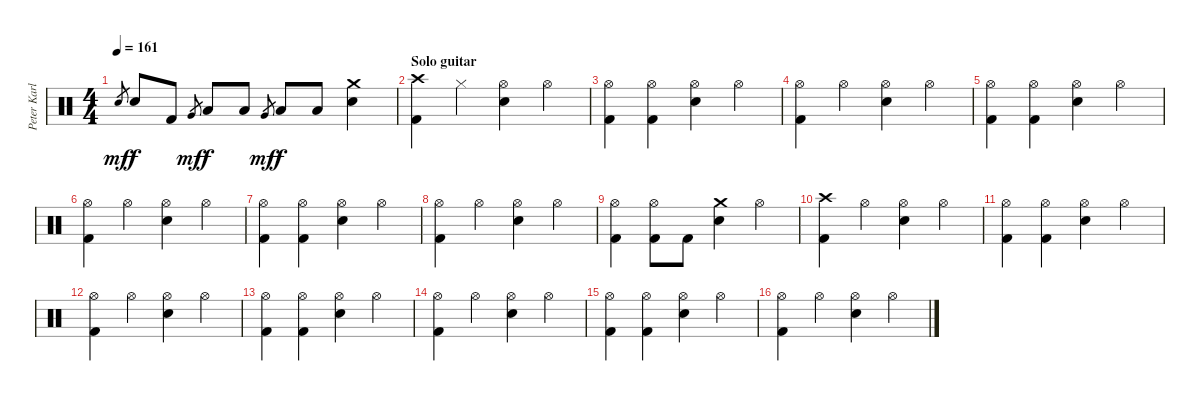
\track ("Peter Karlsson" "Peter Karl") {instrument percussion}
\staff {score}
\articulation defaults
\ts (4 4)
\tempo 161
\clef neutral
\ks c "Snare (hit) 2".8{gr dy mf} "Snare (hit) 2".8{dy f} "Kick (hit) 2".8 "Very Low Tom (hit)".8{gr dy mf} "Low Tom (hit)".8{dy f} "Low Tom (hit)".8 "Very Low Tom (hit)".8{gr dy mf} "Low Tom (hit)".8{dy f} "Low Tom (hit)".8
("Crash medium (hit)" "Snare (hit) 2").4 |
\section ("" "Solo guitar")
("Crash high (hit)" "Kick (hit) 2").4 "Hi-Hat (closed)".4 ("Hi-Hat (open)" "Snare (hit) 2").4 "Hi-Hat (open)".4 |
("Hi-Hat (open)" "Kick (hit) 2").4 ("Hi-Hat (open)" "Kick (hit) 2").4 ("Hi-Hat (open)" "Snare (hit) 2").4 "Hi-Hat (open)".4 |
("Hi-Hat (open)" "Kick (hit) 2").4 "Hi-Hat (open)".4 ("Hi-Hat (open)" "Snare (hit) 2").4 "Hi-Hat (open)".4 |
("Hi-Hat (open)" "Kick (hit) 2").4 ("Hi-Hat (open)" "Kick (hit) 2").4 ("Hi-Hat (open)" "Snare (hit) 2").4 "Hi-Hat (open)".4 |
("Hi-Hat (open)" "Kick (hit) 2").4 "Hi-Hat (open)".4 ("Hi-Hat (open)" "Snare (hit) 2").4 "Hi-Hat (open)".4 |
("Hi-Hat (open)" "Kick (hit) 2").4 ("Hi-Hat (open)" "Kick (hit) 2").4 ("Hi-Hat (open)" "Snare (hit) 2").4 "Hi-Hat (open)".4 |
("Hi-Hat (open)" "Kick (hit) 2").4 "Hi-Hat (open)".4 ("Hi-Hat (open)" "Snare (hit) 2").4 "Hi-Hat (open)".4 |
("Hi-Hat (open)" "Kick (hit) 2").4 ("Hi-Hat (open)" "Kick (hit) 2").8 "Kick (hit) 2".8 ("Crash medium (hit)" "Snare (hit) 2").4 "Hi-Hat (open)".4 |
("Crash high (hit)" "Kick (hit) 2").4 "Hi-Hat (open)".4 ("Hi-Hat (open)" "Snare (hit) 2").4 "Hi-Hat (open)".4 |
("Hi-Hat (open)" "Kick (hit) 2").4 ("Hi-Hat (open)" "Kick (hit) 2").4 ("Hi-Hat (open)" "Snare (hit) 2").4 "Hi-Hat (open)".4 |
("Hi-Hat (open)" "Kick (hit) 2").4 "Hi-Hat (open)".4 ("Hi-Hat (open)" "Snare (hit) 2").4 "Hi-Hat (open)".4 |
("Hi-Hat (open)" "Kick (hit) 2").4 ("Hi-Hat (open)" "Kick (hit) 2").4 ("Hi-Hat (open)" "Snare (hit) 2").4 "Hi-Hat (open)".4 |
("Hi-Hat (open)" "Kick (hit) 2").4 "Hi-Hat (open)".4 ("Hi-Hat (open)" "Snare (hit) 2").4 "Hi-Hat (open)".4 |
("Hi-Hat (open)" "Kick (hit) 2").4 ("Hi-Hat (open)" "Kick (hit) 2").4 ("Hi-Hat (open)" "Snare (hit) 2").4 "Hi-Hat (open)".4 |
("Hi-Hat (open)" "Kick (hit) 2").4 "Hi-Hat (open)".4 ("Hi-Hat (open)" "Snare (hit) 2").4 "Hi-Hat (open)".4
